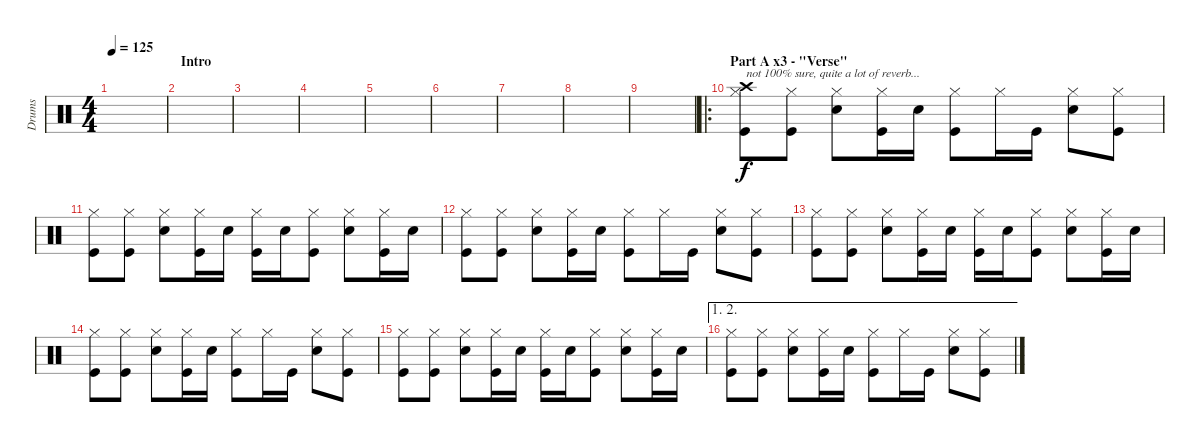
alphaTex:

\track ("Drums" "Drums") {instrument percussion}
\staff {score}
\articulation defaults
\ts (4 4)
\tempo 125
\clef neutral
\ks c
|
\section ("" "Intro")
|
|
|
|
|
|
|
|
\ro
\section ("" "Part A x3 - \"Verse\"")
("Hi-Hat (closed)" "Crash high (hit)" "Kick (hit)").8{txt "not 100% sure, quite a lot of reverb..."} ("Hi-Hat (closed)" "Kick (hit)").8 ("Hi-Hat (closed)" "Electric Snare (hit)").8 ("Hi-Hat (closed)" "Kick (hit)").16 "Electric Snare (hit)".16 ("Hi-Hat (closed)" "Kick (hit)").8 "Hi-Hat (closed)".16 "Kick (hit)".16 ("Hi-Hat (closed)" "Electric Snare (hit)").8 ("Hi-Hat (closed)" "Kick (hit)").8 |
("Hi-Hat (closed)" "Kick (hit)").8 ("Hi-Hat (closed)" "Kick (hit)").8 ("Hi-Hat (closed)" "Electric Snare (hit)").8 ("Hi-Hat (closed)" "Kick (hit)").16 "Electric Snare (hit)".16 ("Hi-Hat (closed)" "Kick (hit)").16 "Electric Snare (hit)".16 ("Hi-Hat (closed)" "Kick (hit)").8 ("Hi-Hat (closed)" "Electric Snare (hit)").8 ("Hi-Hat (closed)" "Kick (hit)").16 "Electric Snare (hit)".16 |
("Hi-Hat (closed)" "Kick (hit)").8 ("Hi-Hat (closed)" "Kick (hit)").8 ("Hi-Hat (closed)" "Electric Snare (hit)").8 ("Hi-Hat (closed)" "Kick (hit)").16 "Electric Snare (hit)".16 ("Hi-Hat (closed)" "Kick (hit)").8 "Hi-Hat (closed)".16 "Kick (hit)".16 ("Hi-Hat (closed)" "Electric Snare (hit)").8 ("Hi-Hat (closed)" "Kick (hit)").8 |
("Hi-Hat (closed)" "Kick (hit)").8 ("Hi-Hat (closed)" "Kick (hit)").8 ("Hi-Hat (closed)" "Electric Snare (hit)").8 ("Hi-Hat (closed)" "Kick (hit)").16 "Electric Snare (hit)".16 ("Hi-Hat (closed)" "Kick (hit)").16 "Electric Snare (hit)".16 ("Hi-Hat (closed)" "Kick (hit)").8 ("Hi-Hat (closed)" "Electric Snare (hit)").8 ("Hi-Hat (closed)" "Kick (hit)").16 "Electric Snare (hit)".16 |
("Hi-Hat (closed)" "Kick (hit)").8 ("Hi-Hat (closed)" "Kick (hit)").8 ("Hi-Hat (closed)" "Electric Snare (hit)").8 ("Hi-Hat (closed)" "Kick (hit)").16 "Electric Snare (hit)".16 ("Hi-Hat (closed)" "Kick (hit)").8 "Hi-Hat (closed)".16 "Kick (hit)".16 ("Hi-Hat (closed)" "Electric Snare (hit)").8 ("Hi-Hat (closed)" "Kick (hit)").8 |
("Hi-Hat (closed)" "Kick (hit)").8 ("Hi-Hat (closed)" "Kick (hit)").8 ("Hi-Hat (closed)" "Electric Snare (hit)").8 ("Hi-Hat (closed)" "Kick (hit)").16 "Electric Snare (hit)".16 ("Hi-Hat (closed)" "Kick (hit)").16 "Electric Snare (hit)".16 ("Hi-Hat (closed)" "Kick (hit)").8 ("Hi-Hat (closed)" "Electric Snare (hit)").8 ("Hi-Hat (closed)" "Kick (hit)").16 "Electric Snare (hit)".16 |
\ae (1 2)
("Hi-Hat (closed)" "Kick (hit)").8 ("Hi-Hat (closed)" "Kick (hit)").8 ("Hi-Hat (closed)" "Electric Snare (hit)").8 ("Hi-Hat (closed)" "Kick (hit)").16 "Electric Snare (hit)".16 ("Hi-Hat (closed)" "Kick (hit)").8 "Hi-Hat (closed)".16 "Kick (hit)".16 ("Hi-Hat (closed)" "Electric Snare (hit)").8 ("Hi-Hat (closed)" "Kick (hit)").8
